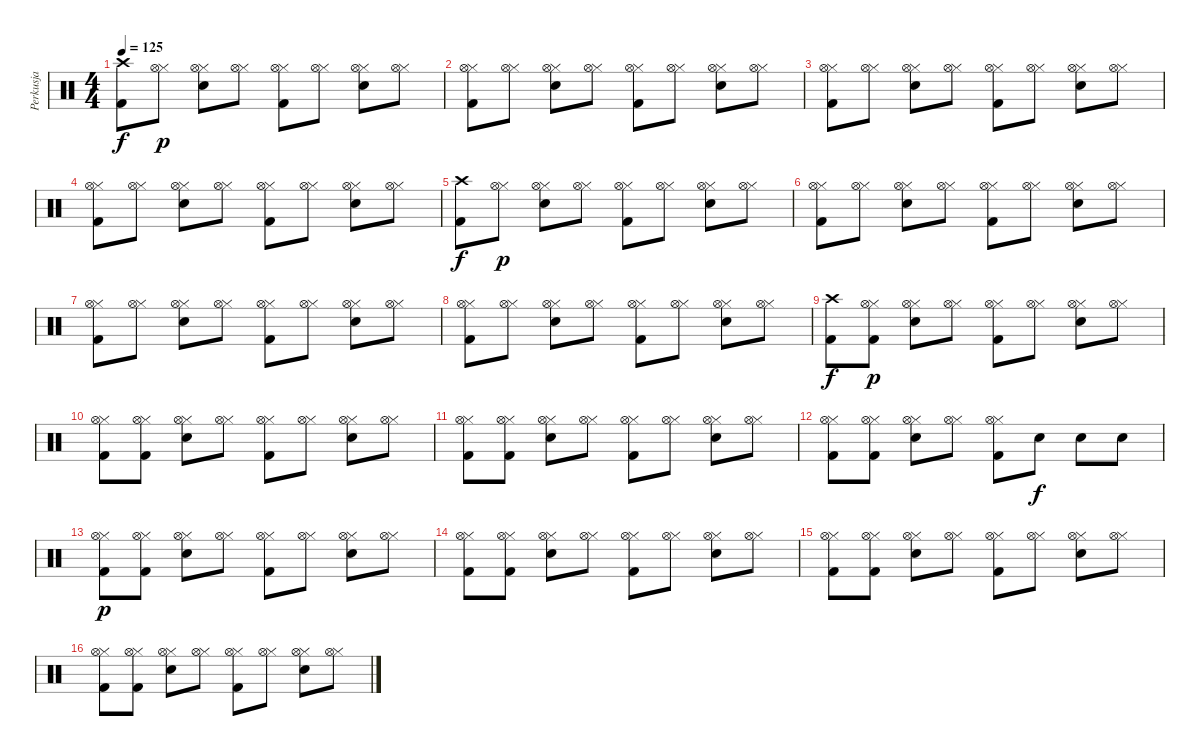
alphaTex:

\track ("Perkusja" "Perkusja") {instrument percussion}
\staff {score}
\articulation defaults
\ts (4 4)
\tempo 125
\clef neutral
\ks c
("Kick (hit) 2" "Crash high (hit)").8{dy f} ("Hi-Hat (closed)" "Hi-Hat (open)").8{dy p} ("Electric Snare (hit)" "Hi-Hat (closed)" "Hi-Hat (open)").8 ("Hi-Hat (closed)" "Hi-Hat (open)").8 ("Kick (hit) 2" "Hi-Hat (closed)" "Hi-Hat (open)").8 ("Hi-Hat (closed)" "Hi-Hat (open)").8 ("Electric Snare (hit)" "Hi-Hat (closed)" "Hi-Hat (open)").8 ("Hi-Hat (closed)" "Hi-Hat (open)").8 |
("Kick (hit) 2" "Hi-Hat (closed)" "Hi-Hat (open)").8 ("Hi-Hat (closed)" "Hi-Hat (open)").8 ("Electric Snare (hit)" "Hi-Hat (closed)" "Hi-Hat (open)").8 ("Hi-Hat (closed)" "Hi-Hat (open)").8 ("Kick (hit) 2" "Hi-Hat (closed)" "Hi-Hat (open)").8 ("Hi-Hat (closed)" "Hi-Hat (open)").8 ("Electric Snare (hit)" "Hi-Hat (closed)" "Hi-Hat (open)").8 ("Hi-Hat (closed)" "Hi-Hat (open)").8 |
("Kick (hit) 2" "Hi-Hat (closed)" "Hi-Hat (open)").8 ("Hi-Hat (closed)" "Hi-Hat (open)").8 ("Electric Snare (hit)" "Hi-Hat (closed)" "Hi-Hat (open)").8 ("Hi-Hat (closed)" "Hi-Hat (open)").8 ("Kick (hit) 2" "Hi-Hat (closed)" "Hi-Hat (open)").8 ("Hi-Hat (closed)" "Hi-Hat (open)").8 ("Electric Snare (hit)" "Hi-Hat (closed)" "Hi-Hat (open)").8 ("Hi-Hat (closed)" "Hi-Hat (open)").8 |
("Kick (hit) 2" "Hi-Hat (closed)" "Hi-Hat (open)").8 ("Hi-Hat (closed)" "Hi-Hat (open)").8 ("Electric Snare (hit)" "Hi-Hat (closed)" "Hi-Hat (open)").8 ("Hi-Hat (closed)" "Hi-Hat (open)").8 ("Kick (hit) 2" "Hi-Hat (closed)" "Hi-Hat (open)").8 ("Hi-Hat (closed)" "Hi-Hat (open)").8 ("Electric Snare (hit)" "Hi-Hat (closed)" "Hi-Hat (open)").8 ("Hi-Hat (closed)" "Hi-Hat (open)").8 |
("Kick (hit) 2" "Crash high (hit)").8{dy f} ("Hi-Hat (closed)" "Hi-Hat (open)").8{dy p} ("Electric Snare (hit)" "Hi-Hat (closed)" "Hi-Hat (open)").8 ("Hi-Hat (closed)" "Hi-Hat (open)").8 ("Kick (hit) 2" "Hi-Hat (closed)" "Hi-Hat (open)").8 ("Hi-Hat (closed)" "Hi-Hat (open)").8 ("Electric Snare (hit)" "Hi-Hat (closed)" "Hi-Hat (open)").8 ("Hi-Hat (closed)" "Hi-Hat (open)").8 |
("Kick (hit) 2" "Hi-Hat (closed)" "Hi-Hat (open)").8 ("Hi-Hat (closed)" "Hi-Hat (open)").8 ("Electric Snare (hit)" "Hi-Hat (closed)" "Hi-Hat (open)").8 ("Hi-Hat (closed)" "Hi-Hat (open)").8 ("Kick (hit) 2" "Hi-Hat (closed)" "Hi-Hat (open)").8 ("Hi-Hat (closed)" "Hi-Hat (open)").8 ("Electric Snare (hit)" "Hi-Hat (closed)" "Hi-Hat (open)").8 ("Hi-Hat (closed)" "Hi-Hat (open)").8 |
("Kick (hit) 2" "Hi-Hat (closed)" "Hi-Hat (open)").8 ("Hi-Hat (closed)" "Hi-Hat (open)").8 ("Electric Snare (hit)" "Hi-Hat (closed)" "Hi-Hat (open)").8 ("Hi-Hat (closed)" "Hi-Hat (open)").8 ("Kick (hit) 2" "Hi-Hat (closed)" "Hi-Hat (open)").8 ("Hi-Hat (closed)" "Hi-Hat (open)").8 ("Electric Snare (hit)" "Hi-Hat (closed)" "Hi-Hat (open)").8 ("Hi-Hat (closed)" "Hi-Hat (open)").8 |
("Kick (hit) 2" "Hi-Hat (closed)" "Hi-Hat (open)").8 ("Hi-Hat (closed)" "Hi-Hat (open)").8 ("Electric Snare (hit)" "Hi-Hat (closed)" "Hi-Hat (open)").8 ("Hi-Hat (closed)" "Hi-Hat (open)").8 ("Kick (hit) 2" "Hi-Hat (closed)" "Hi-Hat (open)").8 ("Hi-Hat (closed)" "Hi-Hat (open)").8 ("Electric Snare (hit)" "Hi-Hat (closed)" "Hi-Hat (open)").8 ("Hi-Hat (closed)" "Hi-Hat (open)").8 |
("Kick (hit) 2" "Crash high (hit)").8{dy f} ("Kick (hit) 2" "Hi-Hat (closed)" "Hi-Hat (open)").8{dy p} ("Electric Snare (hit)" "Hi-Hat (closed)" "Hi-Hat (open)").8 ("Hi-Hat (closed)" "Hi-Hat (open)").8 ("Kick (hit) 2" "Hi-Hat (closed)" "Hi-Hat (open)").8 ("Hi-Hat (closed)" "Hi-Hat (open)").8 ("Electric Snare (hit)" "Hi-Hat (closed)" "Hi-Hat (open)").8 ("Hi-Hat (closed)" "Hi-Hat (open)").8 |
("Kick (hit) 2" "Hi-Hat (closed)" "Hi-Hat (open)").8 ("Kick (hit) 2" "Hi-Hat (closed)" "Hi-Hat (open)").8 ("Electric Snare (hit)" "Hi-Hat (closed)" "Hi-Hat (open)").8 ("Hi-Hat (closed)" "Hi-Hat (open)").8 ("Kick (hit) 2" "Hi-Hat (closed)" "Hi-Hat (open)").8 ("Hi-Hat (closed)" "Hi-Hat (open)").8 ("Electric Snare (hit)" "Hi-Hat (closed)" "Hi-Hat (open)").8 ("Hi-Hat (closed)" "Hi-Hat (open)").8 |
("Kick (hit) 2" "Hi-Hat (closed)" "Hi-Hat (open)").8 ("Kick (hit) 2" "Hi-Hat (closed)" "Hi-Hat (open)").8 ("Electric Snare (hit)" "Hi-Hat (closed)" "Hi-Hat (open)").8 ("Hi-Hat (closed)" "Hi-Hat (open)").8 ("Kick (hit) 2" "Hi-Hat (closed)" "Hi-Hat (open)").8 ("Hi-Hat (closed)" "Hi-Hat (open)").8 ("Electric Snare (hit)" "Hi-Hat (closed)" "Hi-Hat (open)").8 ("Hi-Hat (closed)" "Hi-Hat (open)").8 |
("Kick (hit) 2" "Hi-Hat (closed)" "Hi-Hat (open)").8 ("Kick (hit) 2" "Hi-Hat (closed)" "Hi-Hat (open)").8 ("Electric Snare (hit)" "Hi-Hat (closed)" "Hi-Hat (open)").8 ("Hi-Hat (closed)" "Hi-Hat (open)").8 ("Kick (hit) 2" "Hi-Hat (closed)" "Hi-Hat (open)").8 "Electric Snare (hit)".8{dy f} "Electric Snare (hit)".8 "Electric Snare (hit)".8 |
("Kick (hit) 2" "Hi-Hat (closed)" "Hi-Hat (open)").8{dy p} ("Kick (hit) 2" "Hi-Hat (closed)" "Hi-Hat (open)").8 ("Electric Snare (hit)" "Hi-Hat (closed)" "Hi-Hat (open)").8 ("Hi-Hat (closed)" "Hi-Hat (open)").8 ("Kick (hit) 2" "Hi-Hat (closed)" "Hi-Hat (open)").8 ("Hi-Hat (closed)" "Hi-Hat (open)").8 ("Electric Snare (hit)" "Hi-Hat (closed)" "Hi-Hat (open)").8 ("Hi-Hat (closed)" "Hi-Hat (open)").8 |
("Kick (hit) 2" "Hi-Hat (closed)" "Hi-Hat (open)").8 ("Kick (hit) 2" "Hi-Hat (closed)" "Hi-Hat (open)").8 ("Electric Snare (hit)" "Hi-Hat (closed)" "Hi-Hat (open)").8 ("Hi-Hat (closed)" "Hi-Hat (open)").8 ("Kick (hit) 2" "Hi-Hat (closed)" "Hi-Hat (open)").8 ("Hi-Hat (closed)" "Hi-Hat (open)").8 ("Electric Snare (hit)" "Hi-Hat (closed)" "Hi-Hat (open)").8 ("Hi-Hat (closed)" "Hi-Hat (open)").8 |
("Kick (hit) 2" "Hi-Hat (closed)" "Hi-Hat (open)").8 ("Kick (hit) 2" "Hi-Hat (closed)" "Hi-Hat (open)").8 ("Electric Snare (hit)" "Hi-Hat (closed)" "Hi-Hat (open)").8 ("Hi-Hat (closed)" "Hi-Hat (open)").8 ("Kick (hit) 2" "Hi-Hat (closed)" "Hi-Hat (open)").8 ("Hi-Hat (closed)" "Hi-Hat (open)").8 ("Electric Snare (hit)" "Hi-Hat (closed)" "Hi-Hat (open)").8 ("Hi-Hat (closed)" "Hi-Hat (open)").8 |
("Kick (hit) 2" "Hi-Hat (closed)" "Hi-Hat (open)").8 ("Kick (hit) 2" "Hi-Hat (closed)" "Hi-Hat (open)").8 ("Electric Snare (hit)" "Hi-Hat (closed)" "Hi-Hat (open)").8 ("Hi-Hat (closed)" "Hi-Hat (open)").8 ("Kick (hit) 2" "Hi-Hat (closed)" "Hi-Hat (open)").8 ("Hi-Hat (closed)" "Hi-Hat (open)").8 ("Electric Snare (hit)" "Hi-Hat (closed)" "Hi-Hat (open)").8 ("Hi-Hat (closed)" "Hi-Hat (open)").8
